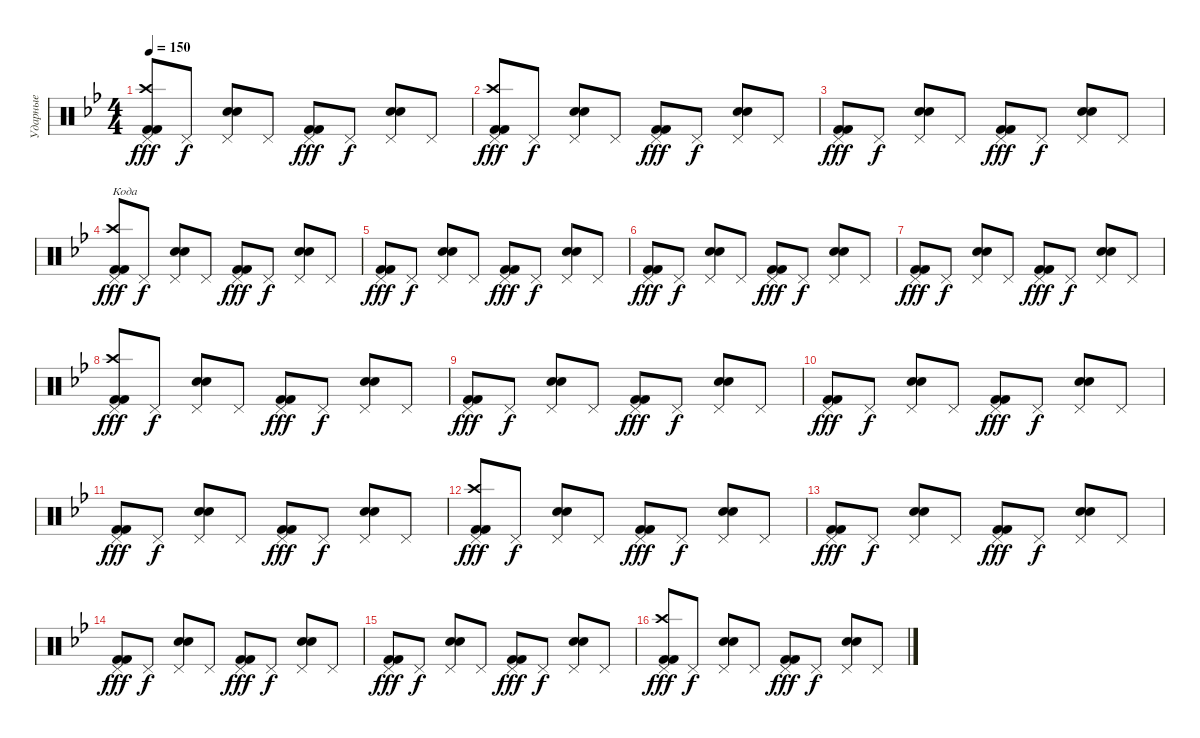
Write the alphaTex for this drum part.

\track ("Ударные" "Ударные") {instrument percussion}
\staff {score}
\articulation defaults
\ts (4 4)
\tempo 150
\clef neutral
\ks gminor
("Kick (hit) 2" "Crash high (hit)" "Kick (hit) 2" "Pedal Hi-Hat (hit)").8{dy fff} "Pedal Hi-Hat (hit)".8{dy f} ("Electric Snare (hit)" "Electric Snare (hit)" "Pedal Hi-Hat (hit)").8 "Pedal Hi-Hat (hit)".8 ("Kick (hit) 2" "Kick (hit) 2" "Pedal Hi-Hat (hit)").8{dy fff} "Pedal Hi-Hat (hit)".8{dy f} ("Electric Snare (hit)" "Electric Snare (hit)" "Pedal Hi-Hat (hit)").8 "Pedal Hi-Hat (hit)".8 |
("Kick (hit) 2" "Crash high (hit)" "Kick (hit) 2" "Pedal Hi-Hat (hit)").8{dy fff} "Pedal Hi-Hat (hit)".8{dy f} ("Electric Snare (hit)" "Electric Snare (hit)" "Pedal Hi-Hat (hit)").8 "Pedal Hi-Hat (hit)".8 ("Kick (hit) 2" "Kick (hit) 2" "Pedal Hi-Hat (hit)").8{dy fff} "Pedal Hi-Hat (hit)".8{dy f} ("Electric Snare (hit)" "Electric Snare (hit)" "Pedal Hi-Hat (hit)").8 "Pedal Hi-Hat (hit)".8 |
("Kick (hit) 2" "Kick (hit) 2" "Pedal Hi-Hat (hit)").8{dy fff} "Pedal Hi-Hat (hit)".8{dy f} ("Electric Snare (hit)" "Electric Snare (hit)" "Pedal Hi-Hat (hit)").8 "Pedal Hi-Hat (hit)".8 ("Kick (hit) 2" "Kick (hit) 2" "Pedal Hi-Hat (hit)").8{dy fff} "Pedal Hi-Hat (hit)".8{dy f} ("Electric Snare (hit)" "Electric Snare (hit)" "Pedal Hi-Hat (hit)").8 "Pedal Hi-Hat (hit)".8 |
("Kick (hit) 2" "Crash high (hit)" "Kick (hit) 2" "Pedal Hi-Hat (hit)").8{txt "Кода" dy fff} "Pedal Hi-Hat (hit)".8{dy f} ("Electric Snare (hit)" "Electric Snare (hit)" "Pedal Hi-Hat (hit)").8 "Pedal Hi-Hat (hit)".8 ("Kick (hit) 2" "Kick (hit) 2" "Pedal Hi-Hat (hit)").8{dy fff} "Pedal Hi-Hat (hit)".8{dy f} ("Electric Snare (hit)" "Electric Snare (hit)" "Pedal Hi-Hat (hit)").8 "Pedal Hi-Hat (hit)".8 |
("Kick (hit) 2" "Kick (hit) 2" "Pedal Hi-Hat (hit)").8{dy fff} "Pedal Hi-Hat (hit)".8{dy f} ("Electric Snare (hit)" "Electric Snare (hit)" "Pedal Hi-Hat (hit)").8 "Pedal Hi-Hat (hit)".8 ("Kick (hit) 2" "Kick (hit) 2" "Pedal Hi-Hat (hit)").8{dy fff} "Pedal Hi-Hat (hit)".8{dy f} ("Electric Snare (hit)" "Electric Snare (hit)" "Pedal Hi-Hat (hit)").8 "Pedal Hi-Hat (hit)".8 |
("Kick (hit) 2" "Kick (hit) 2" "Pedal Hi-Hat (hit)").8{dy fff} "Pedal Hi-Hat (hit)".8{dy f} ("Electric Snare (hit)" "Electric Snare (hit)" "Pedal Hi-Hat (hit)").8 "Pedal Hi-Hat (hit)".8 ("Kick (hit) 2" "Kick (hit) 2" "Pedal Hi-Hat (hit)").8{dy fff} "Pedal Hi-Hat (hit)".8{dy f} ("Electric Snare (hit)" "Electric Snare (hit)" "Pedal Hi-Hat (hit)").8 "Pedal Hi-Hat (hit)".8 |
("Kick (hit) 2" "Kick (hit) 2" "Pedal Hi-Hat (hit)").8{dy fff} "Pedal Hi-Hat (hit)".8{dy f} ("Electric Snare (hit)" "Electric Snare (hit)" "Pedal Hi-Hat (hit)").8 "Pedal Hi-Hat (hit)".8 ("Kick (hit) 2" "Kick (hit) 2" "Pedal Hi-Hat (hit)").8{dy fff} "Pedal Hi-Hat (hit)".8{dy f} ("Electric Snare (hit)" "Electric Snare (hit)" "Pedal Hi-Hat (hit)").8 "Pedal Hi-Hat (hit)".8 |
("Kick (hit) 2" "Crash high (hit)" "Kick (hit) 2" "Pedal Hi-Hat (hit)").8{dy fff} "Pedal Hi-Hat (hit)".8{dy f} ("Electric Snare (hit)" "Electric Snare (hit)" "Pedal Hi-Hat (hit)").8 "Pedal Hi-Hat (hit)".8 ("Kick (hit) 2" "Kick (hit) 2" "Pedal Hi-Hat (hit)").8{dy fff} "Pedal Hi-Hat (hit)".8{dy f} ("Electric Snare (hit)" "Electric Snare (hit)" "Pedal Hi-Hat (hit)").8 "Pedal Hi-Hat (hit)".8 |
("Kick (hit) 2" "Kick (hit) 2" "Pedal Hi-Hat (hit)").8{dy fff} "Pedal Hi-Hat (hit)".8{dy f} ("Electric Snare (hit)" "Electric Snare (hit)" "Pedal Hi-Hat (hit)").8 "Pedal Hi-Hat (hit)".8 ("Kick (hit) 2" "Kick (hit) 2" "Pedal Hi-Hat (hit)").8{dy fff} "Pedal Hi-Hat (hit)".8{dy f} ("Electric Snare (hit)" "Electric Snare (hit)" "Pedal Hi-Hat (hit)").8 "Pedal Hi-Hat (hit)".8 |
("Kick (hit) 2" "Kick (hit) 2" "Pedal Hi-Hat (hit)").8{dy fff} "Pedal Hi-Hat (hit)".8{dy f} ("Electric Snare (hit)" "Electric Snare (hit)" "Pedal Hi-Hat (hit)").8 "Pedal Hi-Hat (hit)".8 ("Kick (hit) 2" "Kick (hit) 2" "Pedal Hi-Hat (hit)").8{dy fff} "Pedal Hi-Hat (hit)".8{dy f} ("Electric Snare (hit)" "Electric Snare (hit)" "Pedal Hi-Hat (hit)").8 "Pedal Hi-Hat (hit)".8 |
("Kick (hit) 2" "Kick (hit) 2" "Pedal Hi-Hat (hit)").8{dy fff} "Pedal Hi-Hat (hit)".8{dy f} ("Electric Snare (hit)" "Electric Snare (hit)" "Pedal Hi-Hat (hit)").8 "Pedal Hi-Hat (hit)".8 ("Kick (hit) 2" "Kick (hit) 2" "Pedal Hi-Hat (hit)").8{dy fff} "Pedal Hi-Hat (hit)".8{dy f} ("Electric Snare (hit)" "Electric Snare (hit)" "Pedal Hi-Hat (hit)").8 "Pedal Hi-Hat (hit)".8 |
("Kick (hit) 2" "Crash high (hit)" "Kick (hit) 2" "Pedal Hi-Hat (hit)").8{dy fff} "Pedal Hi-Hat (hit)".8{dy f} ("Electric Snare (hit)" "Electric Snare (hit)" "Pedal Hi-Hat (hit)").8 "Pedal Hi-Hat (hit)".8 ("Kick (hit) 2" "Kick (hit) 2" "Pedal Hi-Hat (hit)").8{dy fff} "Pedal Hi-Hat (hit)".8{dy f} ("Electric Snare (hit)" "Electric Snare (hit)" "Pedal Hi-Hat (hit)").8 "Pedal Hi-Hat (hit)".8 |
("Kick (hit) 2" "Kick (hit) 2" "Pedal Hi-Hat (hit)").8{dy fff} "Pedal Hi-Hat (hit)".8{dy f} ("Electric Snare (hit)" "Electric Snare (hit)" "Pedal Hi-Hat (hit)").8 "Pedal Hi-Hat (hit)".8 ("Kick (hit) 2" "Kick (hit) 2" "Pedal Hi-Hat (hit)").8{dy fff} "Pedal Hi-Hat (hit)".8{dy f} ("Electric Snare (hit)" "Electric Snare (hit)" "Pedal Hi-Hat (hit)").8 "Pedal Hi-Hat (hit)".8 |
("Kick (hit) 2" "Kick (hit) 2" "Pedal Hi-Hat (hit)").8{dy fff} "Pedal Hi-Hat (hit)".8{dy f} ("Electric Snare (hit)" "Electric Snare (hit)" "Pedal Hi-Hat (hit)").8 "Pedal Hi-Hat (hit)".8 ("Kick (hit) 2" "Kick (hit) 2" "Pedal Hi-Hat (hit)").8{dy fff} "Pedal Hi-Hat (hit)".8{dy f} ("Electric Snare (hit)" "Electric Snare (hit)" "Pedal Hi-Hat (hit)").8 "Pedal Hi-Hat (hit)".8 |
("Kick (hit) 2" "Kick (hit) 2" "Pedal Hi-Hat (hit)").8{dy fff} "Pedal Hi-Hat (hit)".8{dy f} ("Electric Snare (hit)" "Electric Snare (hit)" "Pedal Hi-Hat (hit)").8 "Pedal Hi-Hat (hit)".8 ("Kick (hit) 2" "Kick (hit) 2" "Pedal Hi-Hat (hit)").8{dy fff} "Pedal Hi-Hat (hit)".8{dy f} ("Electric Snare (hit)" "Electric Snare (hit)" "Pedal Hi-Hat (hit)").8 "Pedal Hi-Hat (hit)".8 |
("Kick (hit) 2" "Crash high (hit)" "Kick (hit) 2" "Pedal Hi-Hat (hit)").8{dy fff} "Pedal Hi-Hat (hit)".8{dy f} ("Electric Snare (hit)" "Electric Snare (hit)" "Pedal Hi-Hat (hit)").8 "Pedal Hi-Hat (hit)".8 ("Kick (hit) 2" "Kick (hit) 2" "Pedal Hi-Hat (hit)").8{dy fff} "Pedal Hi-Hat (hit)".8{dy f} ("Electric Snare (hit)" "Electric Snare (hit)" "Pedal Hi-Hat (hit)").8 "Pedal Hi-Hat (hit)".8
